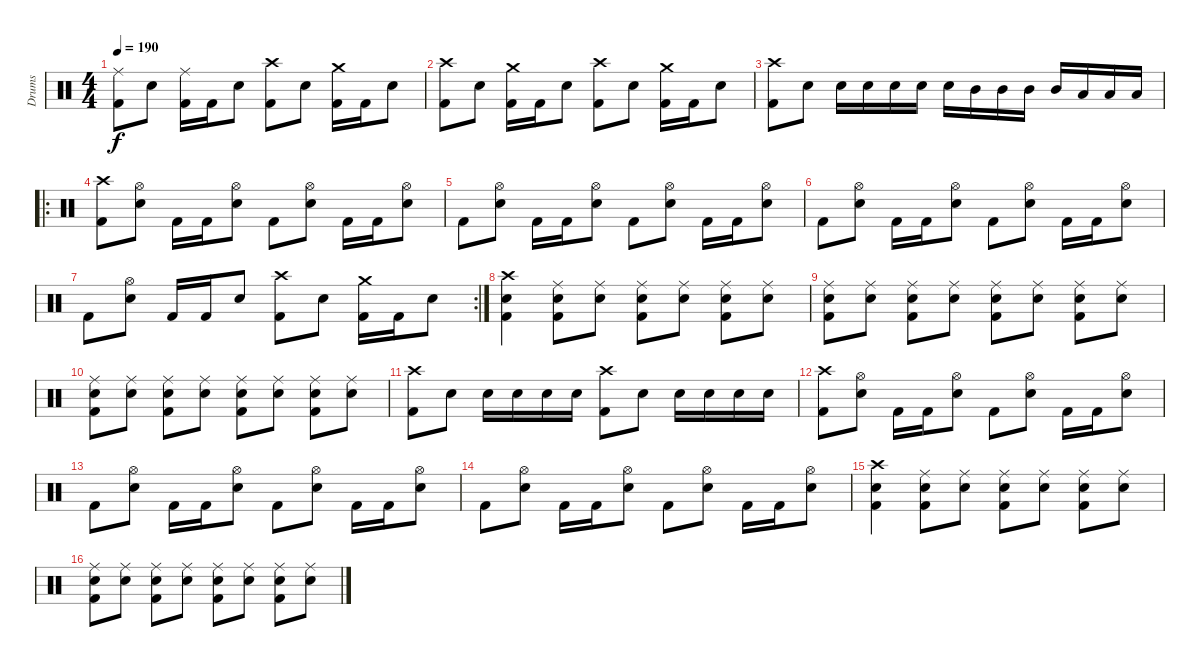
\track ("Drums" "Drums") {instrument percussion}
\staff {score}
\articulation defaults
\ts (4 4)
\tempo 190
\clef neutral
\ks c
("Ride (middle)" "Kick (hit) 2").8{dy f} "Electric Snare (hit)".8 ("Ride (middle)" "Kick (hit) 2").16 "Kick (hit) 2".16 "Electric Snare (hit)".8 ("Crash high (hit)" "Kick (hit) 2").8 "Electric Snare (hit)".8 ("Crash medium (hit)" "Kick (hit) 2").16 "Kick (hit) 2".16 "Electric Snare (hit)".8 |
("Crash high (hit)" "Kick (hit) 2").8 "Electric Snare (hit)".8 ("Crash medium (hit)" "Kick (hit) 2").16 "Kick (hit) 2".16 "Electric Snare (hit)".8 ("Crash high (hit)" "Kick (hit) 2").8 "Electric Snare (hit)".8 ("Crash medium (hit)" "Kick (hit) 2").16 "Kick (hit) 2".16 "Electric Snare (hit)".8 |
("Crash high (hit)" "Kick (hit) 2").8 "Electric Snare (hit)".8 "Electric Snare (hit)".16 "Electric Snare (hit)".16 "Electric Snare (hit)".16 "Electric Snare (hit)".16 "Electric Snare (hit)".16 "Mid Tom (hit)".16 "Mid Tom (hit)".16 "Mid Tom (hit)".16 "Mid Tom (hit)".16 "Low Tom (hit)".16 "Low Tom (hit)".16 "Low Tom (hit)".16 |
\ro
("Crash high (hit)" "Kick (hit) 2").8 ("Hi-Hat (open)" "Electric Snare (hit)").8 "Kick (hit) 2".16 "Kick (hit) 2".16 ("Hi-Hat (open)" "Electric Snare (hit)").8 "Kick (hit) 2".8 ("Hi-Hat (open)" "Electric Snare (hit)").8 "Kick (hit) 2".16 "Kick (hit) 2".16 ("Hi-Hat (open)" "Electric Snare (hit)").8 |
"Kick (hit) 2".8 ("Hi-Hat (open)" "Electric Snare (hit)").8 "Kick (hit) 2".16 "Kick (hit) 2".16 ("Hi-Hat (open)" "Electric Snare (hit)").8 "Kick (hit) 2".8 ("Hi-Hat (open)" "Electric Snare (hit)").8 "Kick (hit) 2".16 "Kick (hit) 2".16 ("Hi-Hat (open)" "Electric Snare (hit)").8 |
"Kick (hit) 2".8 ("Hi-Hat (open)" "Electric Snare (hit)").8 "Kick (hit) 2".16 "Kick (hit) 2".16 ("Hi-Hat (open)" "Electric Snare (hit)").8 "Kick (hit) 2".8 ("Hi-Hat (open)" "Electric Snare (hit)").8 "Kick (hit) 2".16 "Kick (hit) 2".16 ("Hi-Hat (open)" "Electric Snare (hit)").8 |
\rc 2 "Kick (hit) 2".8
("Hi-Hat (open)" "Electric Snare (hit)").8 "Kick (hit) 2".16 "Kick (hit) 2".16 "Electric Snare (hit)".8 ("Crash high (hit)" "Kick (hit) 2").8 "Electric Snare (hit)".8 ("Crash medium (hit)" "Kick (hit) 2").16 "Kick (hit) 2".16 "Electric Snare (hit)".8 |
("Crash high (hit)" "Electric Snare (hit)" "Kick (hit) 2").4 ("Ride (middle)" "Electric Snare (hit)" "Kick (hit) 2").8 ("Ride (middle)" "Electric Snare (hit)").8 ("Ride (middle)" "Electric Snare (hit)" "Kick (hit) 2").8 ("Ride (middle)" "Electric Snare (hit)").8 ("Ride (middle)" "Electric Snare (hit)" "Kick (hit) 2").8 ("Ride (middle)" "Electric Snare (hit)").8 |
("Ride (middle)" "Electric Snare (hit)" "Kick (hit) 2").8 ("Ride (middle)" "Electric Snare (hit)").8 ("Ride (middle)" "Electric Snare (hit)" "Kick (hit) 2").8 ("Ride (middle)" "Electric Snare (hit)").8 ("Ride (middle)" "Electric Snare (hit)" "Kick (hit) 2").8 ("Ride (middle)" "Electric Snare (hit)").8 ("Ride (middle)" "Electric Snare (hit)" "Kick (hit) 2").8 ("Ride (middle)" "Electric Snare (hit)").8 |
("Ride (middle)" "Electric Snare (hit)" "Kick (hit) 2").8 ("Ride (middle)" "Electric Snare (hit)").8 ("Ride (middle)" "Electric Snare (hit)" "Kick (hit) 2").8 ("Ride (middle)" "Electric Snare (hit)").8 ("Ride (middle)" "Electric Snare (hit)" "Kick (hit) 2").8 ("Ride (middle)" "Electric Snare (hit)").8 ("Ride (middle)" "Electric Snare (hit)" "Kick (hit) 2").8 ("Ride (middle)" "Electric Snare (hit)").8 |
("Crash high (hit)" "Kick (hit) 2").8 "Electric Snare (hit)".8 "Electric Snare (hit)".16 "Electric Snare (hit)".16 "Electric Snare (hit)".16 "Electric Snare (hit)".16 ("Crash high (hit)" "Kick (hit) 2").8 "Electric Snare (hit)".8 "Electric Snare (hit)".16 "Electric Snare (hit)".16 "Electric Snare (hit)".16 "Electric Snare (hit)".16 |
("Crash high (hit)" "Kick (hit) 2").8 ("Hi-Hat (open)" "Electric Snare (hit)").8 "Kick (hit) 2".16 "Kick (hit) 2".16 ("Hi-Hat (open)" "Electric Snare (hit)").8 "Kick (hit) 2".8 ("Hi-Hat (open)" "Electric Snare (hit)").8 "Kick (hit) 2".16 "Kick (hit) 2".16 ("Hi-Hat (open)" "Electric Snare (hit)").8 |
"Kick (hit) 2".8 ("Hi-Hat (open)" "Electric Snare (hit)").8 "Kick (hit) 2".16 "Kick (hit) 2".16 ("Hi-Hat (open)" "Electric Snare (hit)").8 "Kick (hit) 2".8 ("Hi-Hat (open)" "Electric Snare (hit)").8 "Kick (hit) 2".16 "Kick (hit) 2".16 ("Hi-Hat (open)" "Electric Snare (hit)").8 |
"Kick (hit) 2".8 ("Hi-Hat (open)" "Electric Snare (hit)").8 "Kick (hit) 2".16 "Kick (hit) 2".16 ("Hi-Hat (open)" "Electric Snare (hit)").8 "Kick (hit) 2".8 ("Hi-Hat (open)" "Electric Snare (hit)").8 "Kick (hit) 2".16 "Kick (hit) 2".16 ("Hi-Hat (open)" "Electric Snare (hit)").8 |
("Crash high (hit)" "Electric Snare (hit)" "Kick (hit) 2").4 ("Ride (middle)" "Electric Snare (hit)" "Kick (hit) 2").8 ("Ride (middle)" "Electric Snare (hit)").8 ("Ride (middle)" "Electric Snare (hit)" "Kick (hit) 2").8 ("Ride (middle)" "Electric Snare (hit)").8 ("Ride (middle)" "Electric Snare (hit)" "Kick (hit) 2").8 ("Ride (middle)" "Electric Snare (hit)").8 |
("Ride (middle)" "Electric Snare (hit)" "Kick (hit) 2").8 ("Ride (middle)" "Electric Snare (hit)").8 ("Ride (middle)" "Electric Snare (hit)" "Kick (hit) 2").8 ("Ride (middle)" "Electric Snare (hit)").8 ("Ride (middle)" "Electric Snare (hit)" "Kick (hit) 2").8 ("Ride (middle)" "Electric Snare (hit)").8 ("Ride (middle)" "Electric Snare (hit)" "Kick (hit) 2").8 ("Ride (middle)" "Electric Snare (hit)").8
